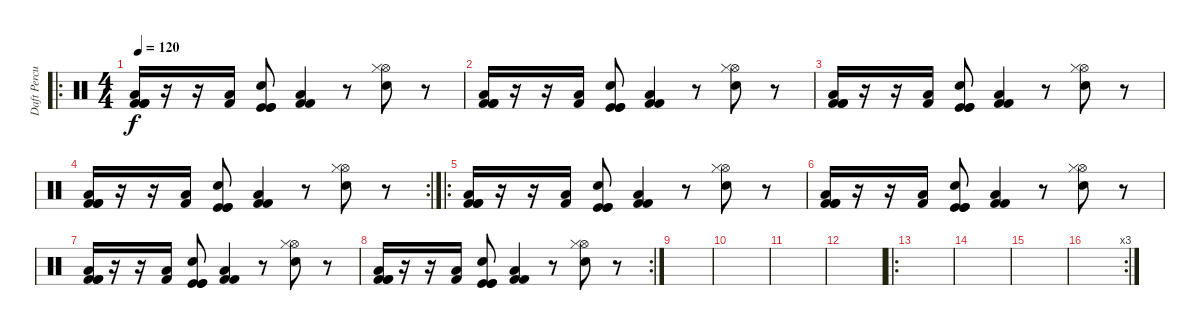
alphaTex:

\track ("Daft Percussion 2" "Daft Percu") {instrument percussion}
\staff {score}
\articulation defaults
\ro
\ts (4 4)
\tempo 120
\clef neutral
\ks c
("Kick (hit) 2" "Low Floor Tom (hit)" "Kick (hit) 2" "Kick (hit) 2").16{dy f} r.16 r.16 ("Low Floor Tom (hit)" "Kick (hit) 2").16 ("Electric Snare (hit)" "Kick (hit)" "Kick (hit)" "Kick (hit)").8 ("Low Floor Tom (hit)" "Kick (hit) 2" "Kick (hit) 2").4 r.8 ("Hi-Hat (open)" "Hi-Hat (closed)" "Electric Snare (hit)").8 r.8 |
("Kick (hit) 2" "Low Floor Tom (hit)" "Kick (hit) 2" "Kick (hit) 2").16 r.16 r.16 ("Low Floor Tom (hit)" "Kick (hit) 2").16 ("Electric Snare (hit)" "Kick (hit)" "Kick (hit)" "Kick (hit)").8 ("Low Floor Tom (hit)" "Kick (hit) 2" "Kick (hit) 2").4 r.8 ("Hi-Hat (open)" "Hi-Hat (closed)" "Electric Snare (hit)").8 r.8 |
("Kick (hit) 2" "Low Floor Tom (hit)" "Kick (hit) 2" "Kick (hit) 2").16 r.16 r.16 ("Low Floor Tom (hit)" "Kick (hit) 2").16 ("Electric Snare (hit)" "Kick (hit)" "Kick (hit)" "Kick (hit)").8 ("Low Floor Tom (hit)" "Kick (hit) 2" "Kick (hit) 2").4 r.8 ("Hi-Hat (open)" "Hi-Hat (closed)" "Electric Snare (hit)").8 r.8 |
\rc 2
("Kick (hit) 2" "Low Floor Tom (hit)" "Kick (hit) 2" "Kick (hit) 2").16 r.16 r.16 ("Low Floor Tom (hit)" "Kick (hit) 2").16 ("Electric Snare (hit)" "Kick (hit)" "Kick (hit)" "Kick (hit)").8 ("Low Floor Tom (hit)" "Kick (hit) 2" "Kick (hit) 2").4 r.8 ("Hi-Hat (open)" "Hi-Hat (closed)" "Electric Snare (hit)").8 r.8 |
\ro
("Kick (hit) 2" "Low Floor Tom (hit)" "Kick (hit) 2" "Kick (hit) 2").16 r.16 r.16 ("Low Floor Tom (hit)" "Kick (hit) 2").16 ("Electric Snare (hit)" "Kick (hit)" "Kick (hit)" "Kick (hit)").8 ("Low Floor Tom (hit)" "Kick (hit) 2" "Kick (hit) 2").4 r.8 ("Hi-Hat (open)" "Hi-Hat (closed)" "Electric Snare (hit)").8 r.8 |
("Kick (hit) 2" "Low Floor Tom (hit)" "Kick (hit) 2" "Kick (hit) 2").16 r.16 r.16 ("Low Floor Tom (hit)" "Kick (hit) 2").16 ("Electric Snare (hit)" "Kick (hit)" "Kick (hit)" "Kick (hit)").8 ("Low Floor Tom (hit)" "Kick (hit) 2" "Kick (hit) 2").4 r.8 ("Hi-Hat (open)" "Hi-Hat (closed)" "Electric Snare (hit)").8 r.8 |
("Kick (hit) 2" "Low Floor Tom (hit)" "Kick (hit) 2" "Kick (hit) 2").16 r.16 r.16 ("Low Floor Tom (hit)" "Kick (hit) 2").16 ("Electric Snare (hit)" "Kick (hit)" "Kick (hit)" "Kick (hit)").8 ("Low Floor Tom (hit)" "Kick (hit) 2" "Kick (hit) 2").4 r.8 ("Hi-Hat (open)" "Hi-Hat (closed)" "Electric Snare (hit)").8 r.8 |
\rc 2
("Kick (hit) 2" "Low Floor Tom (hit)" "Kick (hit) 2" "Kick (hit) 2").16 r.16 r.16 ("Low Floor Tom (hit)" "Kick (hit) 2").16 ("Electric Snare (hit)" "Kick (hit)" "Kick (hit)" "Kick (hit)").8 ("Low Floor Tom (hit)" "Kick (hit) 2" "Kick (hit) 2").4 r.8 ("Hi-Hat (open)" "Hi-Hat (closed)" "Electric Snare (hit)").8 r.8 |
|
|
|
|
\ro
|
|
|
\rc 3
